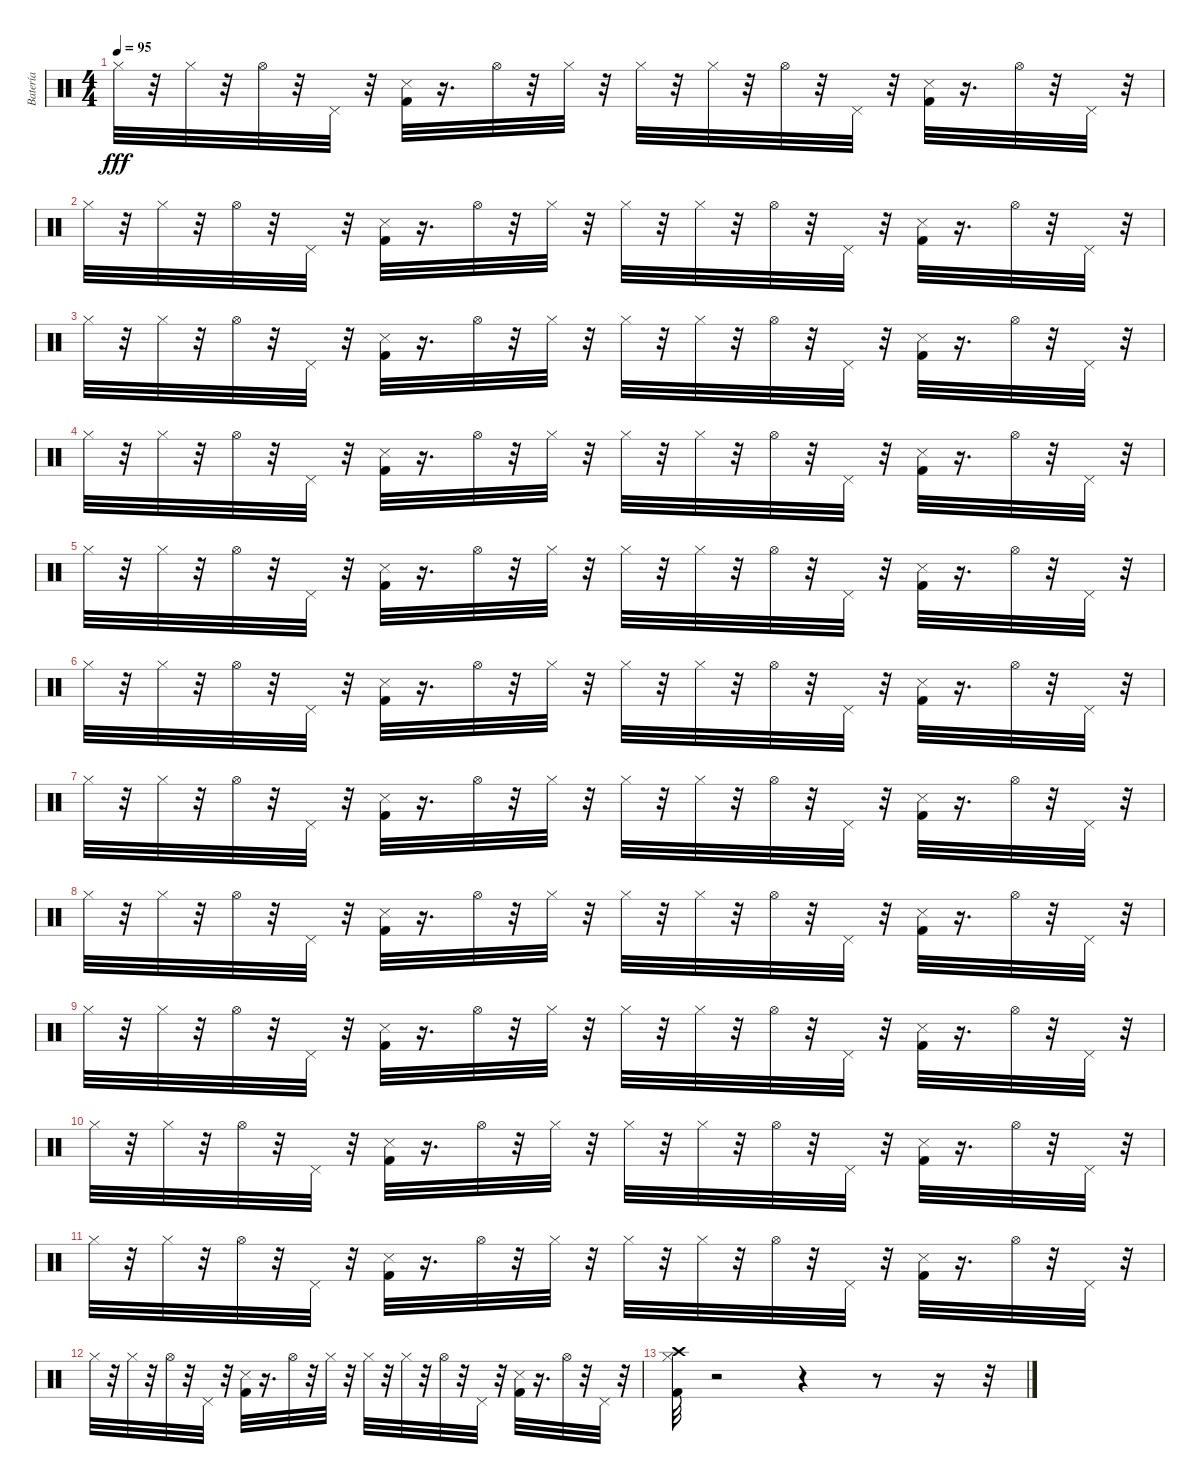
\track ("Batería" "Batería") {instrument percussion}
\staff {score}
\articulation defaults
\ts (4 4)
\tempo 95
\clef neutral
\ks c "Hi-Hat (closed)".32{dy fff}
r.32 "Hi-Hat (closed)".32 r.32 "Hi-Hat (open)".32 r.32 "Pedal Hi-Hat (hit)".32 r.32 ("Kick (hit) 2" "Snare (side stick) 3").32 r.16{d} "Hi-Hat (open)".32 r.32 "Hi-Hat (closed)".32 r.32 "Hi-Hat (closed)".32 r.32 "Hi-Hat (closed)".32 r.32 "Hi-Hat (open)".32 r.32 "Pedal Hi-Hat (hit)".32 r.32 ("Kick (hit) 2" "Snare (side stick) 3").32 r.16{d} "Hi-Hat (open)".32 r.32 "Pedal Hi-Hat (hit)".32 r.32 |
"Hi-Hat (closed)".32 r.32 "Hi-Hat (closed)".32 r.32 "Hi-Hat (open)".32 r.32 "Pedal Hi-Hat (hit)".32 r.32 ("Kick (hit) 2" "Snare (side stick) 3").32 r.16{d} "Hi-Hat (open)".32 r.32 "Hi-Hat (closed)".32 r.32 "Hi-Hat (closed)".32 r.32 "Hi-Hat (closed)".32 r.32 "Hi-Hat (open)".32 r.32 "Pedal Hi-Hat (hit)".32 r.32 ("Kick (hit) 2" "Snare (side stick) 3").32 r.16{d} "Hi-Hat (open)".32 r.32 "Pedal Hi-Hat (hit)".32 r.32 |
"Hi-Hat (closed)".32 r.32 "Hi-Hat (closed)".32 r.32 "Hi-Hat (open)".32 r.32 "Pedal Hi-Hat (hit)".32 r.32 ("Kick (hit) 2" "Snare (side stick) 3").32 r.16{d} "Hi-Hat (open)".32 r.32 "Hi-Hat (closed)".32 r.32 "Hi-Hat (closed)".32 r.32 "Hi-Hat (closed)".32 r.32 "Hi-Hat (open)".32 r.32 "Pedal Hi-Hat (hit)".32 r.32 ("Kick (hit) 2" "Snare (side stick) 3").32 r.16{d} "Hi-Hat (open)".32 r.32 "Pedal Hi-Hat (hit)".32 r.32 |
"Hi-Hat (closed)".32 r.32 "Hi-Hat (closed)".32 r.32 "Hi-Hat (open)".32 r.32 "Pedal Hi-Hat (hit)".32 r.32 ("Kick (hit) 2" "Snare (side stick) 3").32 r.16{d} "Hi-Hat (open)".32 r.32 "Hi-Hat (closed)".32 r.32 "Hi-Hat (closed)".32 r.32 "Hi-Hat (closed)".32 r.32 "Hi-Hat (open)".32 r.32 "Pedal Hi-Hat (hit)".32 r.32 ("Kick (hit) 2" "Snare (side stick) 3").32 r.16{d} "Hi-Hat (open)".32 r.32 "Pedal Hi-Hat (hit)".32 r.32 |
"Hi-Hat (closed)".32 r.32 "Hi-Hat (closed)".32 r.32 "Hi-Hat (open)".32 r.32 "Pedal Hi-Hat (hit)".32 r.32 ("Kick (hit) 2" "Snare (side stick) 3").32 r.16{d} "Hi-Hat (open)".32 r.32 "Hi-Hat (closed)".32 r.32 "Hi-Hat (closed)".32 r.32 "Hi-Hat (closed)".32 r.32 "Hi-Hat (open)".32 r.32 "Pedal Hi-Hat (hit)".32 r.32 ("Kick (hit) 2" "Snare (side stick) 3").32 r.16{d} "Hi-Hat (open)".32 r.32 "Pedal Hi-Hat (hit)".32 r.32 |
"Hi-Hat (closed)".32 r.32 "Hi-Hat (closed)".32 r.32 "Hi-Hat (open)".32 r.32 "Pedal Hi-Hat (hit)".32 r.32 ("Kick (hit) 2" "Snare (side stick) 3").32 r.16{d} "Hi-Hat (open)".32 r.32 "Hi-Hat (closed)".32 r.32 "Hi-Hat (closed)".32 r.32 "Hi-Hat (closed)".32 r.32 "Hi-Hat (open)".32 r.32 "Pedal Hi-Hat (hit)".32 r.32 ("Kick (hit) 2" "Snare (side stick) 3").32 r.16{d} "Hi-Hat (open)".32 r.32 "Pedal Hi-Hat (hit)".32 r.32 |
"Hi-Hat (closed)".32 r.32 "Hi-Hat (closed)".32 r.32 "Hi-Hat (open)".32 r.32 "Pedal Hi-Hat (hit)".32 r.32 ("Kick (hit) 2" "Snare (side stick) 3").32 r.16{d} "Hi-Hat (open)".32 r.32 "Hi-Hat (closed)".32 r.32 "Hi-Hat (closed)".32 r.32 "Hi-Hat (closed)".32 r.32 "Hi-Hat (open)".32 r.32 "Pedal Hi-Hat (hit)".32 r.32 ("Kick (hit) 2" "Snare (side stick) 3").32 r.16{d} "Hi-Hat (open)".32 r.32 "Pedal Hi-Hat (hit)".32 r.32 |
"Hi-Hat (closed)".32 r.32 "Hi-Hat (closed)".32 r.32 "Hi-Hat (open)".32 r.32 "Pedal Hi-Hat (hit)".32 r.32 ("Kick (hit) 2" "Snare (side stick) 3").32 r.16{d} "Hi-Hat (open)".32 r.32 "Hi-Hat (closed)".32 r.32 "Hi-Hat (closed)".32 r.32 "Hi-Hat (closed)".32 r.32 "Hi-Hat (open)".32 r.32 "Pedal Hi-Hat (hit)".32 r.32 ("Kick (hit) 2" "Snare (side stick) 3").32 r.16{d} "Hi-Hat (open)".32 r.32 "Pedal Hi-Hat (hit)".32 r.32 |
"Hi-Hat (closed)".32 r.32 "Hi-Hat (closed)".32 r.32 "Hi-Hat (open)".32 r.32 "Pedal Hi-Hat (hit)".32 r.32 ("Kick (hit) 2" "Snare (side stick) 3").32 r.16{d} "Hi-Hat (open)".32 r.32 "Hi-Hat (closed)".32 r.32 "Hi-Hat (closed)".32 r.32 "Hi-Hat (closed)".32 r.32 "Hi-Hat (open)".32 r.32 "Pedal Hi-Hat (hit)".32 r.32 ("Kick (hit) 2" "Snare (side stick) 3").32 r.16{d} "Hi-Hat (open)".32 r.32 "Pedal Hi-Hat (hit)".32 r.32 |
"Hi-Hat (closed)".32 r.32 "Hi-Hat (closed)".32 r.32 "Hi-Hat (open)".32 r.32 "Pedal Hi-Hat (hit)".32 r.32 ("Kick (hit) 2" "Snare (side stick) 3").32 r.16{d} "Hi-Hat (open)".32 r.32 "Hi-Hat (closed)".32 r.32 "Hi-Hat (closed)".32 r.32 "Hi-Hat (closed)".32 r.32 "Hi-Hat (open)".32 r.32 "Pedal Hi-Hat (hit)".32 r.32 ("Kick (hit) 2" "Snare (side stick) 3").32 r.16{d} "Hi-Hat (open)".32 r.32 "Pedal Hi-Hat (hit)".32 r.32 |
"Hi-Hat (closed)".32 r.32 "Hi-Hat (closed)".32 r.32 "Hi-Hat (open)".32 r.32 "Pedal Hi-Hat (hit)".32 r.32 ("Kick (hit) 2" "Snare (side stick) 3").32 r.16{d} "Hi-Hat (open)".32 r.32 "Hi-Hat (closed)".32 r.32 "Hi-Hat (closed)".32 r.32 "Hi-Hat (closed)".32 r.32 "Hi-Hat (open)".32 r.32 "Pedal Hi-Hat (hit)".32 r.32 ("Kick (hit) 2" "Snare (side stick) 3").32 r.16{d} "Hi-Hat (open)".32 r.32 "Pedal Hi-Hat (hit)".32 r.32 |
"Hi-Hat (closed)".32 r.32 "Hi-Hat (closed)".32 r.32 "Hi-Hat (open)".32 r.32 "Pedal Hi-Hat (hit)".32 r.32 ("Kick (hit) 2" "Snare (side stick) 3").32 r.16{d} "Hi-Hat (open)".32 r.32 "Hi-Hat (closed)".32 r.32 "Hi-Hat (closed)".32 r.32 "Hi-Hat (closed)".32 r.32 "Hi-Hat (open)".32 r.32 "Pedal Hi-Hat (hit)".32 r.32 ("Kick (hit) 2" "Snare (side stick) 3").32 r.16{d} "Hi-Hat (open)".32 r.32 "Pedal Hi-Hat (hit)".32 r.32 |
("Kick (hit) 2" "Crash high (hit)" "Hi-Hat (closed)").32 r.2 r.4 r.8 r.16 r.32
